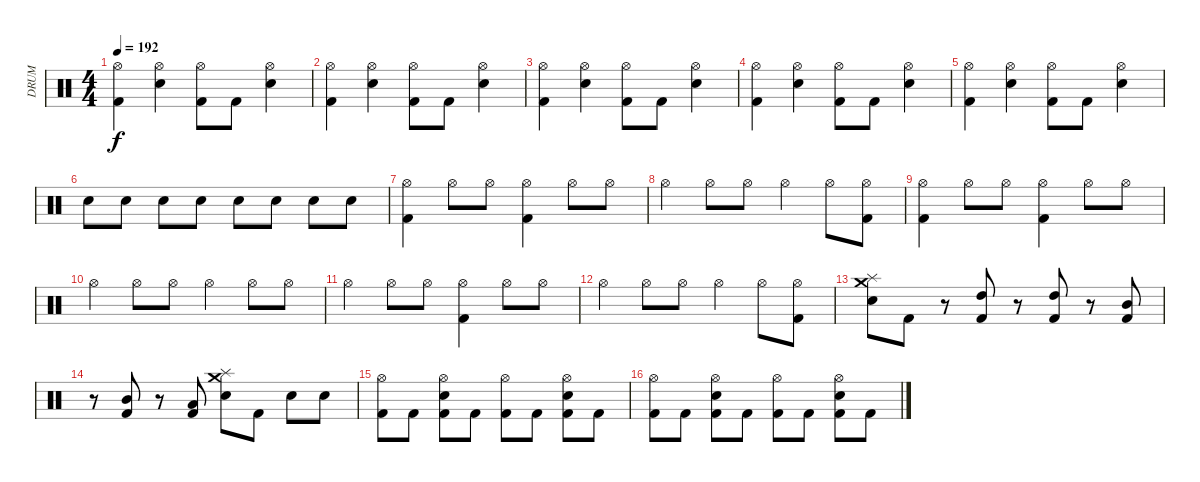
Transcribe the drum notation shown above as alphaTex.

\track ("     DRUM" "     DRUM") {instrument percussion}
\staff {score}
\articulation defaults
\ts (4 4)
\tempo 192
\clef neutral
\ks c
("Hi-Hat (open)" "Kick (hit) 2").4{dy f} ("Hi-Hat (open)" "Electric Snare (hit)").4 ("Hi-Hat (open)" "Kick (hit) 2").8 "Kick (hit) 2".8 ("Hi-Hat (open)" "Electric Snare (hit)").4 |
("Hi-Hat (open)" "Kick (hit) 2").4 ("Hi-Hat (open)" "Electric Snare (hit)").4 ("Hi-Hat (open)" "Kick (hit) 2").8 "Kick (hit) 2".8 ("Hi-Hat (open)" "Electric Snare (hit)").4 |
("Hi-Hat (open)" "Kick (hit) 2").4 ("Hi-Hat (open)" "Electric Snare (hit)").4 ("Hi-Hat (open)" "Kick (hit) 2").8 "Kick (hit) 2".8 ("Hi-Hat (open)" "Electric Snare (hit)").4 |
("Hi-Hat (open)" "Kick (hit) 2").4 ("Hi-Hat (open)" "Electric Snare (hit)").4 ("Hi-Hat (open)" "Kick (hit) 2").8 "Kick (hit) 2".8 ("Hi-Hat (open)" "Electric Snare (hit)").4 |
("Hi-Hat (open)" "Kick (hit) 2").4 ("Hi-Hat (open)" "Electric Snare (hit)").4 ("Hi-Hat (open)" "Kick (hit) 2").8 "Kick (hit) 2".8 ("Hi-Hat (open)" "Electric Snare (hit)").4 |
"Snare (hit) 2".8 "Snare (hit) 2".8 "Snare (hit) 2".8 "Snare (hit) 2".8 "Snare (hit) 2".8 "Snare (hit) 2".8 "Snare (hit) 2".8 "Snare (hit) 2".8 |
("Kick (hit) 2" "Hi-Hat (open)").4 "Hi-Hat (open)".8 "Hi-Hat (open)".8 ("Kick (hit) 2" "Hi-Hat (open)").4 "Hi-Hat (open)".8 "Hi-Hat (open)".8 |
"Hi-Hat (open)".4 "Hi-Hat (open)".8 "Hi-Hat (open)".8 "Hi-Hat (open)".4 "Hi-Hat (open)".8 ("Kick (hit) 2" "Hi-Hat (open)").8 |
("Kick (hit) 2" "Hi-Hat (open)").4 "Hi-Hat (open)".8 "Hi-Hat (open)".8 ("Kick (hit) 2" "Hi-Hat (open)").4 "Hi-Hat (open)".8 "Hi-Hat (open)".8 |
"Hi-Hat (open)".4 "Hi-Hat (open)".8 "Hi-Hat (open)".8 "Hi-Hat (open)".4 "Hi-Hat (open)".8 "Hi-Hat (open)".8 |
"Hi-Hat (open)".4 "Hi-Hat (open)".8 "Hi-Hat (open)".8 ("Kick (hit) 2" "Hi-Hat (open)").4 "Hi-Hat (open)".8 "Hi-Hat (open)".8 |
"Hi-Hat (open)".4 "Hi-Hat (open)".8 "Hi-Hat (open)".8 "Hi-Hat (open)".4 "Hi-Hat (open)".8 ("Kick (hit) 2" "Hi-Hat (open)").8 |
("Splash (hit)" "Crash medium (hit)" "Snare (hit) 2").8 "Kick (hit) 2".8 r.8 ("High Tom (hit)" "Kick (hit) 2").8 r.8 ("High Tom (hit)" "Kick (hit) 2").8 r.8 ("Mid Tom (hit)" "Kick (hit) 2").8 |
r.8 ("Mid Tom (hit)" "Kick (hit) 2").8 r.8 ("Low Tom (hit)" "Kick (hit) 2").8 ("Splash (hit)" "Crash medium (hit)" "Snare (hit) 2").8 "Kick (hit) 2".8 "Snare (hit) 2".8 "Snare (hit) 2".8 |
("Hi-Hat (open)" "Kick (hit) 2").8 "Kick (hit) 2".8 ("Electric Snare (hit)" "Hi-Hat (open)" "Kick (hit) 2").8 "Kick (hit) 2".8 ("Hi-Hat (open)" "Kick (hit) 2").8 "Kick (hit) 2".8 ("Electric Snare (hit)" "Hi-Hat (open)" "Kick (hit) 2").8 "Kick (hit) 2".8 |
("Hi-Hat (open)" "Kick (hit) 2").8 "Kick (hit) 2".8 ("Electric Snare (hit)" "Hi-Hat (open)" "Kick (hit) 2").8 "Kick (hit) 2".8 ("Hi-Hat (open)" "Kick (hit) 2").8 "Kick (hit) 2".8 ("Electric Snare (hit)" "Hi-Hat (open)" "Kick (hit) 2").8 "Kick (hit) 2".8
